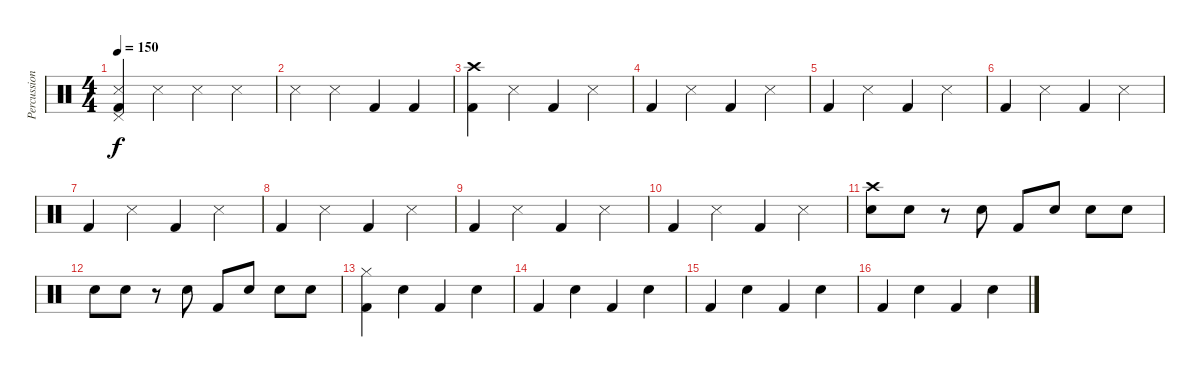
\track ("Percussion" "Percussion") {instrument percussion}
\staff {score}
\articulation defaults
\ts (4 4)
\tempo 150
\clef neutral
\ks c
("Pedal Hi-Hat (hit)" "Kick (hit) 2" "Snare (side stick) 3").4{dy f} "Snare (side stick) 3".4 "Snare (side stick) 3".4 "Snare (side stick) 3".4 |
"Snare (side stick) 3".4 "Snare (side stick) 3".4 "Kick (hit) 2".4 "Kick (hit) 2".4 |
("Crash high (hit)" "Kick (hit) 2").4 "Snare (side stick) 3".4 "Kick (hit) 2".4 "Snare (side stick) 3".4 |
"Kick (hit) 2".4 "Snare (side stick) 3".4 "Kick (hit) 2".4 "Snare (side stick) 3".4 |
"Kick (hit) 2".4 "Snare (side stick) 3".4 "Kick (hit) 2".4 "Snare (side stick) 3".4 |
"Kick (hit) 2".4 "Snare (side stick) 3".4 "Kick (hit) 2".4 "Snare (side stick) 3".4 |
"Kick (hit) 2".4 "Snare (side stick) 3".4 "Kick (hit) 2".4 "Snare (side stick) 3".4 |
"Kick (hit) 2".4 "Snare (side stick) 3".4 "Kick (hit) 2".4 "Snare (side stick) 3".4 |
"Kick (hit) 2".4 "Snare (side stick) 3".4 "Kick (hit) 2".4 "Snare (side stick) 3".4 |
"Kick (hit) 2".4 "Snare (side stick) 3".4 "Kick (hit) 2".4 "Snare (side stick) 3".4 |
("Crash high (hit)" "Electric Snare (hit)").8 "Electric Snare (hit)".8 r.8 "Snare (hit)".8 "Kick (hit) 2".8 "Electric Snare (hit)".8 "Snare (hit)".8 "Snare (hit)".8 |
"Electric Snare (hit)".8 "Electric Snare (hit)".8 r.8 "Snare (hit)".8 "Kick (hit) 2".8 "Electric Snare (hit)".8 "Snare (hit)".8 "Snare (hit)".8 |
("Hi-Hat (closed)" "Kick (hit) 2").4 "Electric Snare (hit)".4 "Kick (hit) 2".4 "Electric Snare (hit)".4 |
"Kick (hit) 2".4 "Electric Snare (hit)".4 "Kick (hit) 2".4 "Electric Snare (hit)".4 |
"Kick (hit) 2".4 "Electric Snare (hit)".4 "Kick (hit) 2".4 "Electric Snare (hit)".4 |
"Kick (hit) 2".4 "Electric Snare (hit)".4 "Kick (hit) 2".4 "Electric Snare (hit)".4
